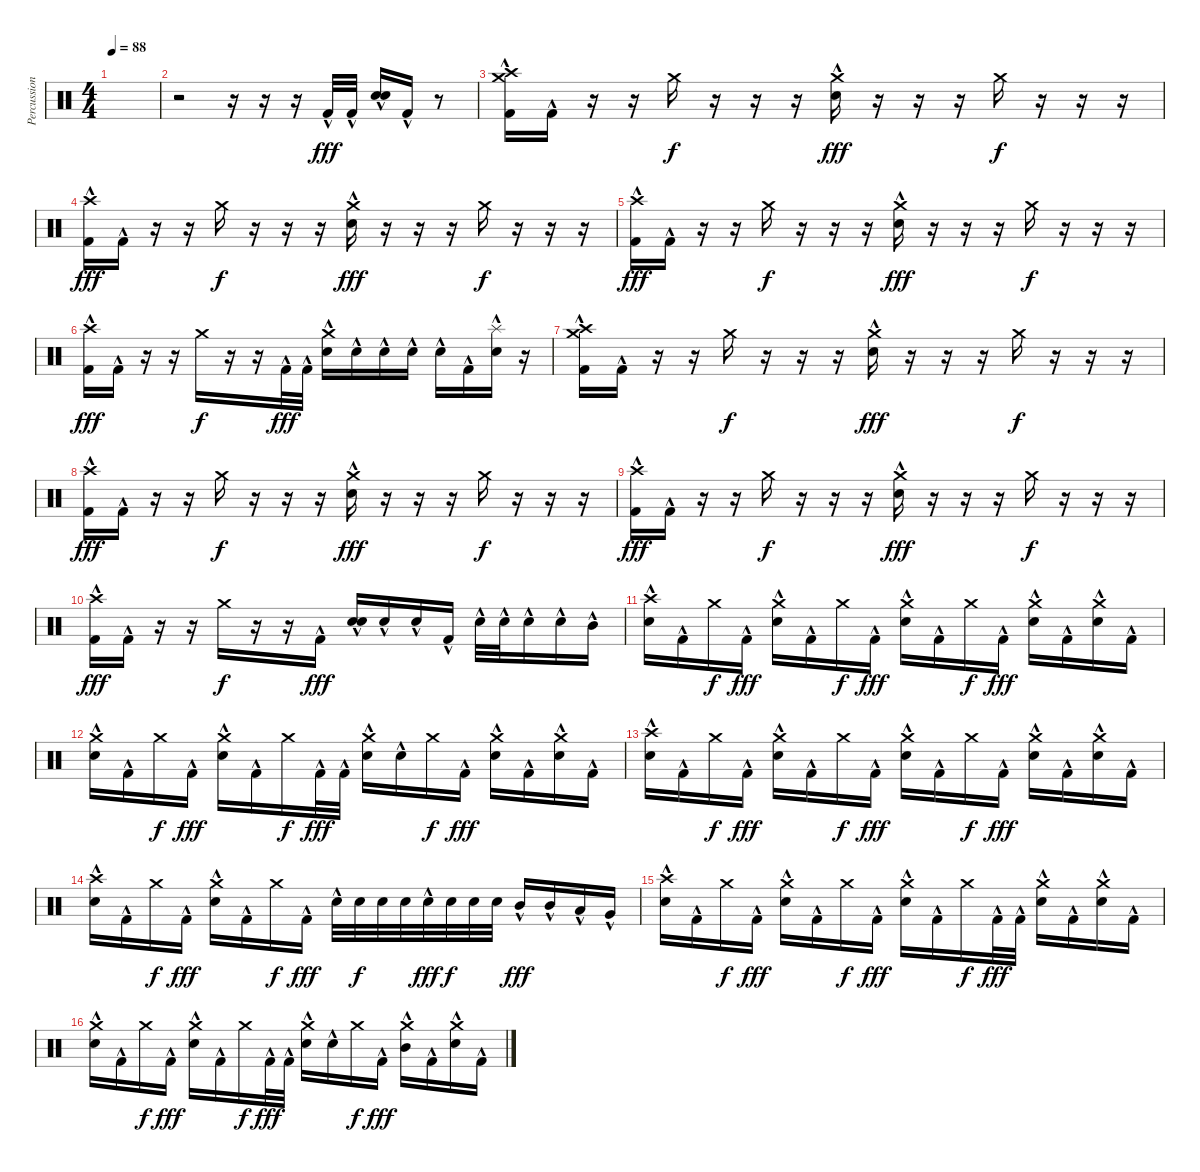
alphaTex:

\track ("Percussion" "Percussion") {instrument percussion}
\staff {score}
\articulation defaults
\ts (4 4)
\tempo 88
\clef neutral
\ks c
|
r.2 r.16 r.16 r.16 "Kick (hit) 2"{hac}.32{dy fff} "Kick (hit) 2"{hac}.32 ("Electric Snare (hit)"{hac} "Electric Snare (hit)"{hac}).16{bd 240} "Kick (hit) 2"{hac}.16 r.8 |
("Kick (hit) 2"{hac} "Crash medium (hit)" "Crash high (hit)").16 "Kick (hit) 2"{hac}.16 r.16 r.16 "Crash medium (hit)".16{dy f} r.16 r.16 r.16 ("Electric Snare (hit)"{hac} "Crash medium (hit)").16{dy fff} r.16 r.16 r.16 "Crash medium (hit)".16{dy f} r.16 r.16 r.16 |
("Kick (hit) 2"{hac} "Crash high (hit)").16{dy fff} "Kick (hit) 2"{hac}.16 r.16 r.16 "Crash medium (hit)".16{dy f} r.16 r.16 r.16 ("Electric Snare (hit)"{hac} "Crash medium (hit)").16{dy fff} r.16 r.16 r.16 "Crash medium (hit)".16{dy f} r.16 r.16 r.16 |
("Kick (hit) 2"{hac} "Crash high (hit)").16{dy fff} "Kick (hit) 2"{hac}.16 r.16 r.16 "Crash medium (hit)".16{dy f} r.16 r.16 r.16 ("Electric Snare (hit)"{hac} "Crash medium (hit)").16{dy fff} r.16 r.16 r.16 "Crash medium (hit)".16{dy f} r.16 r.16 r.16 |
("Kick (hit) 2"{hac} "Crash high (hit)").16{dy fff} "Kick (hit) 2"{hac}.16 r.16 r.16 "Crash medium (hit)".16{dy f} r.16 r.16 "Kick (hit) 2"{hac}.32{dy fff} "Kick (hit) 2"{hac}.32 ("Electric Snare (hit)"{hac} "Crash medium (hit)").16 "Electric Snare (hit)"{hac}.16 "Electric Snare (hit)"{hac}.16 "Electric Snare (hit)"{hac}.16 "Electric Snare (hit)"{hac}.16 "Kick (hit) 2"{hac}.16 ("Electric Snare (hit)"{hac} "Splash (hit)").16 r.16 |
("Kick (hit) 2"{hac} "Crash medium (hit)" "Crash high (hit)").16 "Kick (hit) 2"{hac}.16 r.16 r.16 "Crash medium (hit)".16{dy f} r.16 r.16 r.16 ("Electric Snare (hit)"{hac} "Crash medium (hit)").16{dy fff} r.16 r.16 r.16 "Crash medium (hit)".16{dy f} r.16 r.16 r.16 |
("Kick (hit) 2"{hac} "Crash high (hit)").16{dy fff} "Kick (hit) 2"{hac}.16 r.16 r.16 "Crash medium (hit)".16{dy f} r.16 r.16 r.16 ("Electric Snare (hit)"{hac} "Crash medium (hit)").16{dy fff} r.16 r.16 r.16 "Crash medium (hit)".16{dy f} r.16 r.16 r.16 |
("Kick (hit) 2"{hac} "Crash high (hit)").16{dy fff} "Kick (hit) 2"{hac}.16 r.16 r.16 "Crash medium (hit)".16{dy f} r.16 r.16 r.16 ("Electric Snare (hit)"{hac} "Crash medium (hit)").16{dy fff} r.16 r.16 r.16 "Crash medium (hit)".16{dy f} r.16 r.16 r.16 |
("Kick (hit) 2"{hac} "Crash high (hit)").16{dy fff} "Kick (hit) 2"{hac}.16 r.16 r.16 "Crash medium (hit)".16{dy f} r.16 r.16 "Kick (hit) 2"{hac}.16{dy fff} ("Electric Snare (hit)"{hac} "Electric Snare (hit)"{hac}).16{bd 240} "Electric Snare (hit)"{hac}.16 "Electric Snare (hit)"{hac}.16 "Kick (hit) 2"{hac}.16 "Electric Snare (hit)"{hac}.32 "Electric Snare (hit)"{hac}.32 "Electric Snare (hit)"{hac}.16 "Electric Snare (hit)"{hac}.16 "Mid Tom (hit)"{hac}.16 |
("Electric Snare (hit)"{hac} "Crash high (hit)"{hac}).16 "Kick (hit) 2"{hac}.16 "Crash medium (hit)".16{dy f} "Kick (hit) 2"{hac}.16{dy fff} ("Electric Snare (hit)"{hac} "Crash medium (hit)").16 "Kick (hit) 2"{hac}.16 "Crash medium (hit)".16{dy f} "Kick (hit) 2"{hac}.16{dy fff} ("Electric Snare (hit)"{hac} "Crash medium (hit)").16 "Kick (hit) 2"{hac}.16 "Crash medium (hit)".16{dy f} "Kick (hit) 2"{hac}.16{dy fff} ("Electric Snare (hit)"{hac} "Crash medium (hit)").16 "Kick (hit) 2"{hac}.16 ("Electric Snare (hit)"{hac} "Crash medium (hit)").16 "Kick (hit) 2"{hac}.16 |
("Electric Snare (hit)"{hac} "Crash medium (hit)"{hac}).16 "Kick (hit) 2"{hac}.16 "Crash medium (hit)".16{dy f} "Kick (hit) 2"{hac}.16{dy fff} ("Electric Snare (hit)"{hac} "Crash medium (hit)").16 "Kick (hit) 2"{hac}.16 "Crash medium (hit)".16{dy f} "Kick (hit) 2"{hac}.32{dy fff} "Kick (hit) 2"{hac}.32 ("Electric Snare (hit)"{hac} "Crash medium (hit)").16 "Electric Snare (hit)"{hac}.16 "Crash medium (hit)".16{dy f} "Kick (hit) 2"{hac}.16{dy fff} ("Electric Snare (hit)"{hac} "Crash medium (hit)").16 "Kick (hit) 2"{hac}.16 ("Electric Snare (hit)"{hac} "Crash medium (hit)").16 "Kick (hit) 2"{hac}.16 |
("Electric Snare (hit)"{hac} "Crash high (hit)"{hac}).16 "Kick (hit) 2"{hac}.16 "Crash medium (hit)".16{dy f} "Kick (hit) 2"{hac}.16{dy fff} ("Electric Snare (hit)"{hac} "Crash medium (hit)").16 "Kick (hit) 2"{hac}.16 "Crash medium (hit)".16{dy f} "Kick (hit) 2"{hac}.16{dy fff} ("Electric Snare (hit)"{hac} "Crash medium (hit)").16 "Kick (hit) 2"{hac}.16 "Crash medium (hit)".16{dy f} "Kick (hit) 2"{hac}.16{dy fff} ("Electric Snare (hit)"{hac} "Crash medium (hit)").16 "Kick (hit) 2"{hac}.16 ("Electric Snare (hit)"{hac} "Crash medium (hit)").16 "Kick (hit) 2"{hac}.16 |
("Electric Snare (hit)"{hac} "Crash high (hit)"{hac}).16 "Kick (hit) 2"{hac}.16 "Crash medium (hit)".16{dy f} "Kick (hit) 2"{hac}.16{dy fff} ("Electric Snare (hit)"{hac} "Crash medium (hit)").16 "Kick (hit) 2"{hac}.16 "Crash medium (hit)".16{dy f} "Kick (hit) 2"{hac}.16{dy fff} "Electric Snare (hit)"{hac}.32 "Electric Snare (hit)".32{dy f} "Electric Snare (hit)".32 "Electric Snare (hit)".32 "Electric Snare (hit)"{hac}.32{dy fff} "Electric Snare (hit)".32{dy f} "Electric Snare (hit)".32 "Electric Snare (hit)".32 "Mid Tom (hit)"{hac}.16{dy fff} "Mid Tom (hit)"{hac}.16 "Low Tom (hit)"{hac}.16 "Very Low Tom (hit)"{hac}.16 |
("Electric Snare (hit)"{hac} "Crash high (hit)"{hac}).16 "Kick (hit) 2"{hac}.16 "Crash medium (hit)".16{dy f} "Kick (hit) 2"{hac}.16{dy fff} ("Electric Snare (hit)"{hac} "Crash medium (hit)").16 "Kick (hit) 2"{hac}.16 "Crash medium (hit)".16{dy f} "Kick (hit) 2"{hac}.16{dy fff} ("Electric Snare (hit)"{hac} "Crash medium (hit)").16 "Kick (hit) 2"{hac}.16 "Crash medium (hit)".16{dy f} "Kick (hit) 2"{hac}.32{dy fff} "Kick (hit) 2"{hac}.32 ("Electric Snare (hit)"{hac} "Crash medium (hit)").16 "Kick (hit) 2"{hac}.16 ("Electric Snare (hit)"{hac} "Crash medium (hit)").16 "Kick (hit) 2"{hac}.16 |
("Electric Snare (hit)"{hac} "Crash medium (hit)"{hac}).16 "Kick (hit) 2"{hac}.16 "Crash medium (hit)".16{dy f} "Kick (hit) 2"{hac}.16{dy fff} ("Electric Snare (hit)"{hac} "Crash medium (hit)").16 "Kick (hit) 2"{hac}.16 "Crash medium (hit)".16{dy f} "Kick (hit) 2"{hac}.32{dy fff} "Kick (hit) 2"{hac}.32 ("Electric Snare (hit)"{hac} "Crash medium (hit)").16 "Electric Snare (hit)"{hac}.16 "Crash medium (hit)".16{dy f} "Kick (hit) 2"{hac}.16{dy fff} ("Mid Tom (hit)"{hac} "Crash medium (hit)").16 "Kick (hit) 2"{hac}.16 ("Electric Snare (hit)"{hac} "Crash medium (hit)").16 "Kick (hit) 2"{hac}.16
